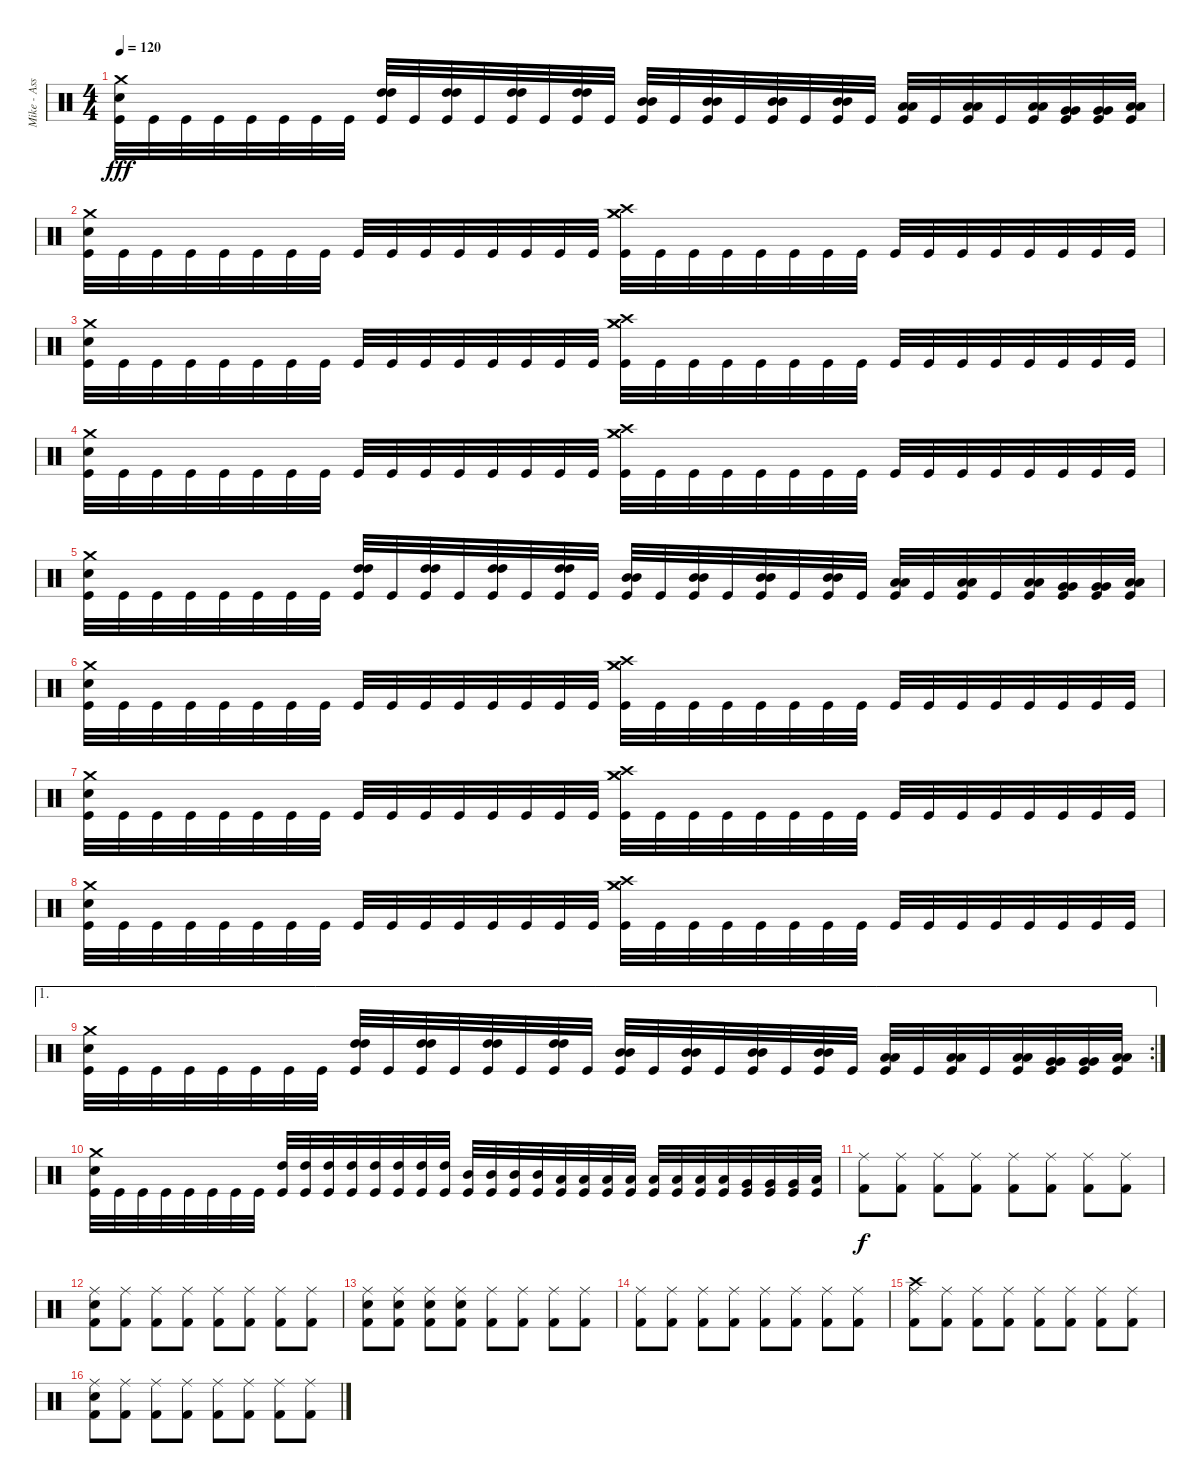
\track ("Mike - Assualt And Battery" "Mike - Ass") {instrument percussion}
\staff {score}
\articulation defaults
\ts (4 4)
\tempo 120
\clef neutral
\ks c
("Crash medium (hit)" "Snare (hit) 2" "Kick (hit)").32{dy fff} "Kick (hit)".32 "Kick (hit)".32 "Kick (hit)".32 "Kick (hit)".32 "Kick (hit)".32 "Kick (hit)".32 "Kick (hit)".32 ("High Tom (hit)" "High Tom (hit)" "Kick (hit)").32 "Kick (hit)".32 ("High Tom (hit)" "High Tom (hit)" "Kick (hit)").32 "Kick (hit)".32 ("High Tom (hit)" "High Tom (hit)" "Kick (hit)").32 "Kick (hit)".32 ("High Tom (hit)" "High Tom (hit)" "Kick (hit)").32 "Kick (hit)".32 ("Mid Tom (hit)" "Mid Tom (hit)" "Kick (hit)").32 "Kick (hit)".32 ("Mid Tom (hit)" "Mid Tom (hit)" "Kick (hit)").32 "Kick (hit)".32 ("Mid Tom (hit)" "Mid Tom (hit)" "Kick (hit)").32 "Kick (hit)".32 ("Mid Tom (hit)" "Mid Tom (hit)" "Kick (hit)").32 "Kick (hit)".32 ("Low Tom (hit)" "Low Tom (hit)" "Kick (hit)").32 "Kick (hit)".32 ("Low Tom (hit)" "Low Tom (hit)" "Kick (hit)").32 "Kick (hit)".32 ("Low Tom (hit)" "Low Tom (hit)" "Kick (hit)").32 ("Very Low Tom (hit)" "Very Low Tom (hit)" "Kick (hit)").32 ("Very Low Tom (hit)" "Very Low Tom (hit)" "Kick (hit)").32 ("Low Floor Tom (hit)" "Low Floor Tom (hit)" "Kick (hit)").32 |
("Crash medium (hit)" "Snare (hit) 2" "Kick (hit)").32 "Kick (hit)".32 "Kick (hit)".32 "Kick (hit)".32 "Kick (hit)".32 "Kick (hit)".32 "Kick (hit)".32 "Kick (hit)".32 "Kick (hit)".32 "Kick (hit)".32 "Kick (hit)".32 "Kick (hit)".32 "Kick (hit)".32 "Kick (hit)".32 "Kick (hit)".32 "Kick (hit)".32 ("Crash high (hit)" "Crash medium (hit)" "Crash medium (hit)" "Kick (hit)").32 "Kick (hit)".32 "Kick (hit)".32 "Kick (hit)".32 "Kick (hit)".32 "Kick (hit)".32 "Kick (hit)".32 "Kick (hit)".32 "Kick (hit)".32 "Kick (hit)".32 "Kick (hit)".32 "Kick (hit)".32 "Kick (hit)".32 "Kick (hit)".32 "Kick (hit)".32 "Kick (hit)".32 |
("Crash medium (hit)" "Snare (hit) 2" "Kick (hit)").32 "Kick (hit)".32 "Kick (hit)".32 "Kick (hit)".32 "Kick (hit)".32 "Kick (hit)".32 "Kick (hit)".32 "Kick (hit)".32 "Kick (hit)".32 "Kick (hit)".32 "Kick (hit)".32 "Kick (hit)".32 "Kick (hit)".32 "Kick (hit)".32 "Kick (hit)".32 "Kick (hit)".32 ("Crash high (hit)" "Crash medium (hit)" "Crash medium (hit)" "Kick (hit)").32 "Kick (hit)".32 "Kick (hit)".32 "Kick (hit)".32 "Kick (hit)".32 "Kick (hit)".32 "Kick (hit)".32 "Kick (hit)".32 "Kick (hit)".32 "Kick (hit)".32 "Kick (hit)".32 "Kick (hit)".32 "Kick (hit)".32 "Kick (hit)".32 "Kick (hit)".32 "Kick (hit)".32 |
("Crash medium (hit)" "Snare (hit) 2" "Kick (hit)").32 "Kick (hit)".32 "Kick (hit)".32 "Kick (hit)".32 "Kick (hit)".32 "Kick (hit)".32 "Kick (hit)".32 "Kick (hit)".32 "Kick (hit)".32 "Kick (hit)".32 "Kick (hit)".32 "Kick (hit)".32 "Kick (hit)".32 "Kick (hit)".32 "Kick (hit)".32 "Kick (hit)".32 ("Crash high (hit)" "Crash medium (hit)" "Crash medium (hit)" "Kick (hit)").32 "Kick (hit)".32 "Kick (hit)".32 "Kick (hit)".32 "Kick (hit)".32 "Kick (hit)".32 "Kick (hit)".32 "Kick (hit)".32 "Kick (hit)".32 "Kick (hit)".32 "Kick (hit)".32 "Kick (hit)".32 "Kick (hit)".32 "Kick (hit)".32 "Kick (hit)".32 "Kick (hit)".32 |
("Crash medium (hit)" "Snare (hit) 2" "Kick (hit)").32 "Kick (hit)".32 "Kick (hit)".32 "Kick (hit)".32 "Kick (hit)".32 "Kick (hit)".32 "Kick (hit)".32 "Kick (hit)".32 ("High Tom (hit)" "High Tom (hit)" "Kick (hit)").32 "Kick (hit)".32 ("High Tom (hit)" "High Tom (hit)" "Kick (hit)").32 "Kick (hit)".32 ("High Tom (hit)" "High Tom (hit)" "Kick (hit)").32 "Kick (hit)".32 ("High Tom (hit)" "High Tom (hit)" "Kick (hit)").32 "Kick (hit)".32 ("Mid Tom (hit)" "Mid Tom (hit)" "Kick (hit)").32 "Kick (hit)".32 ("Mid Tom (hit)" "Mid Tom (hit)" "Kick (hit)").32 "Kick (hit)".32 ("Mid Tom (hit)" "Mid Tom (hit)" "Kick (hit)").32 "Kick (hit)".32 ("Mid Tom (hit)" "Mid Tom (hit)" "Kick (hit)").32 "Kick (hit)".32 ("Low Tom (hit)" "Low Tom (hit)" "Kick (hit)").32 "Kick (hit)".32 ("Low Tom (hit)" "Low Tom (hit)" "Kick (hit)").32 "Kick (hit)".32 ("Low Tom (hit)" "Low Tom (hit)" "Kick (hit)").32 ("Very Low Tom (hit)" "Very Low Tom (hit)" "Kick (hit)").32 ("Very Low Tom (hit)" "Very Low Tom (hit)" "Kick (hit)").32 ("Low Floor Tom (hit)" "Low Floor Tom (hit)" "Kick (hit)").32 |
("Crash medium (hit)" "Snare (hit) 2" "Kick (hit)").32 "Kick (hit)".32 "Kick (hit)".32 "Kick (hit)".32 "Kick (hit)".32 "Kick (hit)".32 "Kick (hit)".32 "Kick (hit)".32 "Kick (hit)".32 "Kick (hit)".32 "Kick (hit)".32 "Kick (hit)".32 "Kick (hit)".32 "Kick (hit)".32 "Kick (hit)".32 "Kick (hit)".32 ("Crash high (hit)" "Crash medium (hit)" "Crash medium (hit)" "Kick (hit)").32 "Kick (hit)".32 "Kick (hit)".32 "Kick (hit)".32 "Kick (hit)".32 "Kick (hit)".32 "Kick (hit)".32 "Kick (hit)".32 "Kick (hit)".32 "Kick (hit)".32 "Kick (hit)".32 "Kick (hit)".32 "Kick (hit)".32 "Kick (hit)".32 "Kick (hit)".32 "Kick (hit)".32 |
("Crash medium (hit)" "Snare (hit) 2" "Kick (hit)").32 "Kick (hit)".32 "Kick (hit)".32 "Kick (hit)".32 "Kick (hit)".32 "Kick (hit)".32 "Kick (hit)".32 "Kick (hit)".32 "Kick (hit)".32 "Kick (hit)".32 "Kick (hit)".32 "Kick (hit)".32 "Kick (hit)".32 "Kick (hit)".32 "Kick (hit)".32 "Kick (hit)".32 ("Crash high (hit)" "Crash medium (hit)" "Crash medium (hit)" "Kick (hit)").32 "Kick (hit)".32 "Kick (hit)".32 "Kick (hit)".32 "Kick (hit)".32 "Kick (hit)".32 "Kick (hit)".32 "Kick (hit)".32 "Kick (hit)".32 "Kick (hit)".32 "Kick (hit)".32 "Kick (hit)".32 "Kick (hit)".32 "Kick (hit)".32 "Kick (hit)".32 "Kick (hit)".32 |
("Crash medium (hit)" "Snare (hit) 2" "Kick (hit)").32 "Kick (hit)".32 "Kick (hit)".32 "Kick (hit)".32 "Kick (hit)".32 "Kick (hit)".32 "Kick (hit)".32 "Kick (hit)".32 "Kick (hit)".32 "Kick (hit)".32 "Kick (hit)".32 "Kick (hit)".32 "Kick (hit)".32 "Kick (hit)".32 "Kick (hit)".32 "Kick (hit)".32 ("Crash high (hit)" "Crash medium (hit)" "Crash medium (hit)" "Kick (hit)").32 "Kick (hit)".32 "Kick (hit)".32 "Kick (hit)".32 "Kick (hit)".32 "Kick (hit)".32 "Kick (hit)".32 "Kick (hit)".32 "Kick (hit)".32 "Kick (hit)".32 "Kick (hit)".32 "Kick (hit)".32 "Kick (hit)".32 "Kick (hit)".32 "Kick (hit)".32 "Kick (hit)".32 |
\ae 1
\rc 2
("Crash medium (hit)" "Snare (hit) 2" "Kick (hit)").32 "Kick (hit)".32 "Kick (hit)".32 "Kick (hit)".32 "Kick (hit)".32 "Kick (hit)".32 "Kick (hit)".32 "Kick (hit)".32 ("High Tom (hit)" "High Tom (hit)" "Kick (hit)").32 "Kick (hit)".32 ("High Tom (hit)" "High Tom (hit)" "Kick (hit)").32 "Kick (hit)".32 ("High Tom (hit)" "High Tom (hit)" "Kick (hit)").32 "Kick (hit)".32 ("High Tom (hit)" "High Tom (hit)" "Kick (hit)").32 "Kick (hit)".32 ("Mid Tom (hit)" "Mid Tom (hit)" "Kick (hit)").32 "Kick (hit)".32 ("Mid Tom (hit)" "Mid Tom (hit)" "Kick (hit)").32 "Kick (hit)".32 ("Mid Tom (hit)" "Mid Tom (hit)" "Kick (hit)").32 "Kick (hit)".32 ("Mid Tom (hit)" "Mid Tom (hit)" "Kick (hit)").32 "Kick (hit)".32 ("Low Tom (hit)" "Low Tom (hit)" "Kick (hit)").32 "Kick (hit)".32 ("Low Tom (hit)" "Low Tom (hit)" "Kick (hit)").32 "Kick (hit)".32 ("Low Tom (hit)" "Low Tom (hit)" "Kick (hit)").32 ("Very Low Tom (hit)" "Very Low Tom (hit)" "Kick (hit)").32 ("Very Low Tom (hit)" "Very Low Tom (hit)" "Kick (hit)").32 ("Low Floor Tom (hit)" "Low Floor Tom (hit)" "Kick (hit)").32 |
("Crash medium (hit)" "Snare (hit) 2" "Kick (hit)").32 "Kick (hit)".32 "Kick (hit)".32 "Kick (hit)".32 "Kick (hit)".32 "Kick (hit)".32 "Kick (hit)".32 "Kick (hit)".32 ("High Tom (hit)" "Kick (hit)").32 ("High Tom (hit)" "Kick (hit)").32 ("High Tom (hit)" "Kick (hit)").32 ("High Tom (hit)" "Kick (hit)").32 ("High Tom (hit)" "Kick (hit)").32 ("High Tom (hit)" "Kick (hit)").32 ("High Tom (hit)" "Kick (hit)").32 ("High Tom (hit)" "Kick (hit)").32 ("Mid Tom (hit)" "Kick (hit)").32 ("Mid Tom (hit)" "Kick (hit)").32 ("Mid Tom (hit)" "Kick (hit)").32 ("Mid Tom (hit)" "Kick (hit)").32 ("Low Tom (hit)" "Kick (hit)").32 ("Low Tom (hit)" "Kick (hit)").32 ("Low Tom (hit)" "Kick (hit)").32 ("Low Tom (hit)" "Kick (hit)").32 ("Low Tom (hit)" "Kick (hit)").32 ("Low Tom (hit)" "Kick (hit)").32 ("Low Tom (hit)" "Kick (hit)").32 ("Low Tom (hit)" "Kick (hit)").32 ("Very Low Tom (hit)" "Kick (hit)").32 ("Very Low Tom (hit)" "Kick (hit)").32 ("Very Low Tom (hit)" "Kick (hit)").32 ("Low Floor Tom (hit)" "Kick (hit)").32 |
("Ride (middle)" "Kick (hit) 2").8{dy f} ("Ride (middle)" "Kick (hit) 2").8 ("Ride (middle)" "Kick (hit) 2").8 ("Ride (middle)" "Kick (hit) 2").8 ("Ride (middle)" "Kick (hit) 2").8 ("Ride (middle)" "Kick (hit) 2").8 ("Ride (middle)" "Kick (hit) 2").8 ("Ride (middle)" "Kick (hit) 2").8 |
("Ride (middle)" "Electric Snare (hit)" "Kick (hit) 2").8 ("Ride (middle)" "Kick (hit) 2").8 ("Ride (middle)" "Kick (hit) 2").8 ("Ride (middle)" "Kick (hit) 2").8 ("Ride (middle)" "Kick (hit) 2").8 ("Ride (middle)" "Kick (hit) 2").8 ("Ride (middle)" "Kick (hit) 2").8 ("Ride (middle)" "Kick (hit) 2").8 |
("Ride (middle)" "Electric Snare (hit)" "Kick (hit) 2").8 ("Ride (middle)" "Electric Snare (hit)" "Kick (hit) 2").8 ("Ride (middle)" "Electric Snare (hit)" "Kick (hit) 2").8 ("Ride (middle)" "Electric Snare (hit)" "Kick (hit) 2").8 ("Ride (middle)" "Kick (hit) 2").8 ("Ride (middle)" "Kick (hit) 2").8 ("Ride (middle)" "Kick (hit) 2").8 ("Ride (middle)" "Kick (hit) 2").8 |
("Ride (middle)" "Kick (hit) 2").8 ("Ride (middle)" "Kick (hit) 2").8 ("Ride (middle)" "Kick (hit) 2").8 ("Ride (middle)" "Kick (hit) 2").8 ("Ride (middle)" "Kick (hit) 2").8 ("Ride (middle)" "Kick (hit) 2").8 ("Ride (middle)" "Kick (hit) 2").8 ("Ride (middle)" "Kick (hit) 2").8 |
("Crash high (hit)" "Ride (middle)" "Kick (hit) 2").8 ("Ride (middle)" "Kick (hit) 2").8 ("Ride (middle)" "Kick (hit) 2").8 ("Ride (middle)" "Kick (hit) 2").8 ("Ride (middle)" "Kick (hit) 2").8 ("Ride (middle)" "Kick (hit) 2").8 ("Ride (middle)" "Kick (hit) 2").8 ("Ride (middle)" "Kick (hit) 2").8 |
("Ride (middle)" "Electric Snare (hit)" "Kick (hit) 2").8 ("Ride (middle)" "Kick (hit) 2").8 ("Ride (middle)" "Kick (hit) 2").8 ("Ride (middle)" "Kick (hit) 2").8 ("Ride (middle)" "Kick (hit) 2").8 ("Ride (middle)" "Kick (hit) 2").8 ("Ride (middle)" "Kick (hit) 2").8 ("Ride (middle)" "Kick (hit) 2").8
